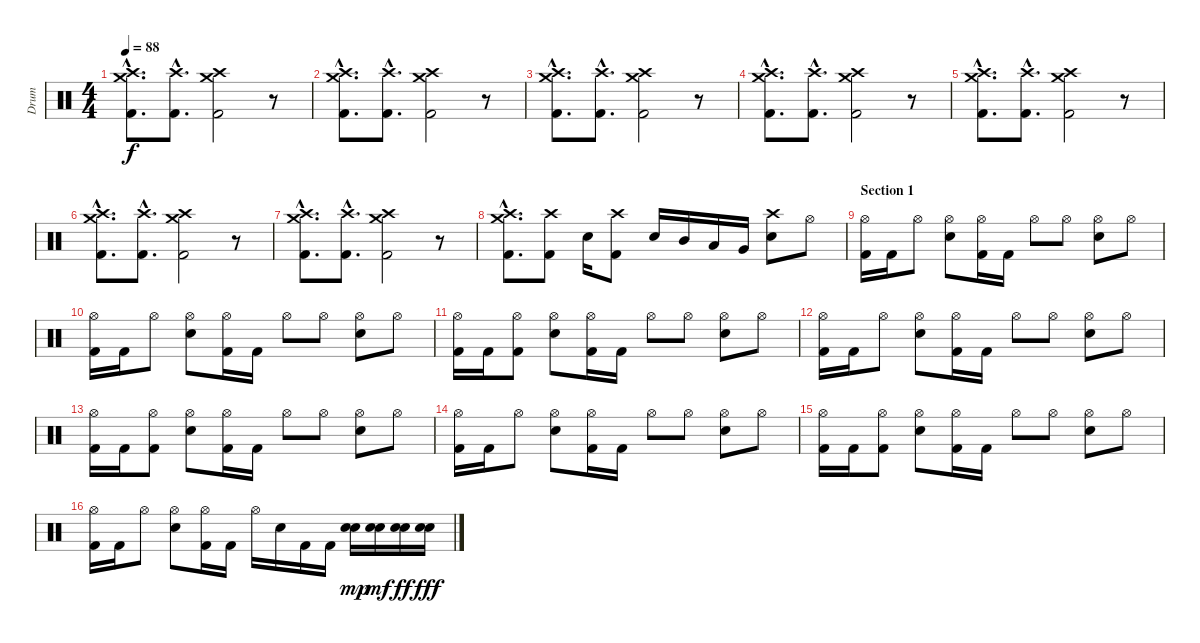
\track ("Drum" "Drum") {instrument percussion}
\staff {score}
\articulation defaults
\ts (4 4)
\tempo 88
\clef neutral
\ks c
("Crash high (hit)"{hac} "Crash medium (hit)"{hac} "Kick (hit) 2"{hac}).8{d dy f} ("Crash high (hit)"{hac} "Kick (hit) 2"{hac}).8{d} ("Crash high (hit)" "Crash medium (hit)" "Kick (hit) 2").2 r.8 |
("Crash high (hit)"{hac} "Crash medium (hit)"{hac} "Kick (hit) 2"{hac}).8{d} ("Crash high (hit)"{hac} "Kick (hit) 2"{hac}).8{d} ("Crash high (hit)" "Crash medium (hit)" "Kick (hit) 2").2 r.8 |
("Crash high (hit)"{hac} "Crash medium (hit)"{hac} "Kick (hit) 2"{hac}).8{d} ("Crash high (hit)"{hac} "Kick (hit) 2"{hac}).8{d} ("Crash high (hit)" "Crash medium (hit)" "Kick (hit) 2").2 r.8 |
("Crash high (hit)"{hac} "Crash medium (hit)"{hac} "Kick (hit) 2"{hac}).8{d} ("Crash high (hit)"{hac} "Kick (hit) 2"{hac}).8{d} ("Crash high (hit)" "Crash medium (hit)" "Kick (hit) 2").2 r.8 |
("Crash high (hit)"{hac} "Crash medium (hit)"{hac} "Kick (hit) 2"{hac}).8{d} ("Crash high (hit)"{hac} "Kick (hit) 2"{hac}).8{d} ("Crash high (hit)" "Crash medium (hit)" "Kick (hit) 2").2 r.8 |
("Crash high (hit)"{hac} "Crash medium (hit)"{hac} "Kick (hit) 2"{hac}).8{d} ("Crash high (hit)"{hac} "Kick (hit) 2"{hac}).8{d} ("Crash high (hit)" "Crash medium (hit)" "Kick (hit) 2").2 r.8 |
("Crash high (hit)"{hac} "Crash medium (hit)"{hac} "Kick (hit) 2"{hac}).8{d} ("Crash high (hit)"{hac} "Kick (hit) 2"{hac}).8{d} ("Crash high (hit)" "Crash medium (hit)" "Kick (hit) 2").2 r.8 |
("Crash high (hit)"{hac} "Crash medium (hit)"{hac} "Kick (hit) 2"{hac}).8{d} ("Crash high (hit)" "Kick (hit) 2").8 "Electric Snare (hit)".16 ("Crash high (hit)" "Kick (hit) 2").8 "Electric Snare (hit)".16 "Mid Tom (hit)".16 "Low Tom (hit)".16 "Very Low Tom (hit)".16 ("Crash high (hit)" "Electric Snare (hit)").8 "Hi-Hat (open)".8 |
\section ("" "Section 1")
("Hi-Hat (open)" "Kick (hit) 2").16 "Kick (hit) 2".16 "Hi-Hat (open)".8 ("Hi-Hat (open)" "Electric Snare (hit)").8 ("Hi-Hat (open)" "Kick (hit) 2").16 "Kick (hit) 2".16 "Hi-Hat (open)".8 "Hi-Hat (open)".8 ("Hi-Hat (open)" "Electric Snare (hit)").8 "Hi-Hat (open)".8 |
("Hi-Hat (open)" "Kick (hit) 2").16 "Kick (hit) 2".16 "Hi-Hat (open)".8 ("Hi-Hat (open)" "Electric Snare (hit)").8 ("Hi-Hat (open)" "Kick (hit) 2").16 "Kick (hit) 2".16 "Hi-Hat (open)".8 "Hi-Hat (open)".8 ("Hi-Hat (open)" "Electric Snare (hit)").8 "Hi-Hat (open)".8 |
("Hi-Hat (open)" "Kick (hit) 2").16 "Kick (hit) 2".16 ("Hi-Hat (open)" "Kick (hit) 2").8 ("Hi-Hat (open)" "Electric Snare (hit)").8 ("Hi-Hat (open)" "Kick (hit) 2").16 "Kick (hit) 2".16 "Hi-Hat (open)".8 "Hi-Hat (open)".8 ("Hi-Hat (open)" "Electric Snare (hit)").8 "Hi-Hat (open)".8 |
("Hi-Hat (open)" "Kick (hit) 2").16 "Kick (hit) 2".16 "Hi-Hat (open)".8 ("Hi-Hat (open)" "Electric Snare (hit)").8 ("Hi-Hat (open)" "Kick (hit) 2").16 "Kick (hit) 2".16 "Hi-Hat (open)".8 "Hi-Hat (open)".8 ("Hi-Hat (open)" "Electric Snare (hit)").8 "Hi-Hat (open)".8 |
("Hi-Hat (open)" "Kick (hit) 2").16 "Kick (hit) 2".16 ("Hi-Hat (open)" "Kick (hit) 2").8 ("Hi-Hat (open)" "Electric Snare (hit)").8 ("Hi-Hat (open)" "Kick (hit) 2").16 "Kick (hit) 2".16 "Hi-Hat (open)".8 "Hi-Hat (open)".8 ("Hi-Hat (open)" "Electric Snare (hit)").8 "Hi-Hat (open)".8 |
("Hi-Hat (open)" "Kick (hit) 2").16 "Kick (hit) 2".16 "Hi-Hat (open)".8 ("Hi-Hat (open)" "Electric Snare (hit)").8 ("Hi-Hat (open)" "Kick (hit) 2").16 "Kick (hit) 2".16 "Hi-Hat (open)".8 "Hi-Hat (open)".8 ("Hi-Hat (open)" "Electric Snare (hit)").8 "Hi-Hat (open)".8 |
("Hi-Hat (open)" "Kick (hit) 2").16 "Kick (hit) 2".16 ("Hi-Hat (open)" "Kick (hit) 2").8 ("Hi-Hat (open)" "Electric Snare (hit)").8 ("Hi-Hat (open)" "Kick (hit) 2").16 "Kick (hit) 2".16 "Hi-Hat (open)".8 "Hi-Hat (open)".8 ("Hi-Hat (open)" "Electric Snare (hit)").8 "Hi-Hat (open)".8 |
("Hi-Hat (open)" "Kick (hit) 2").16 "Kick (hit) 2".16 "Hi-Hat (open)".8 ("Hi-Hat (open)" "Electric Snare (hit)").8 ("Hi-Hat (open)" "Kick (hit) 2").16 "Kick (hit) 2".16 "Hi-Hat (open)".16 "Electric Snare (hit)".16 "Kick (hit) 2".16 "Kick (hit) 2".16 ("Electric Snare (hit)" "Electric Snare (hit)").16{dy mp} ("Electric Snare (hit)" "Electric Snare (hit)").16{dy mf} ("Electric Snare (hit)" "Electric Snare (hit)").16{dy ff} ("Electric Snare (hit)" "Electric Snare (hit)").16{dy fff}
